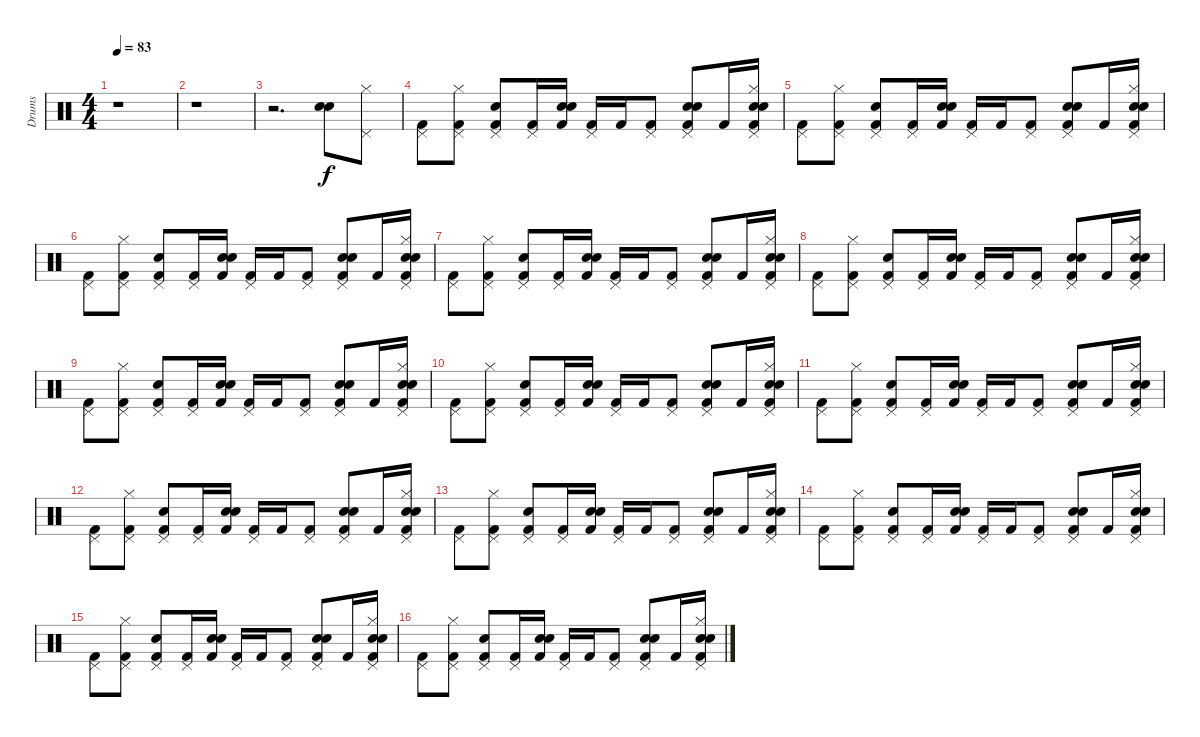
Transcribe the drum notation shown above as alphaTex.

\track ("Drums" "Drums") {instrument percussion}
\staff {score}
\articulation defaults
\ts (4 4)
\tempo 83
\clef neutral
\ks c
r.1{dy f} |
r.1 |
r.2{d} ("Electric Snare (hit)" "Snare (hit) 2").8 ("Hi-Hat (closed)" "Pedal Hi-Hat (hit)").8 |
("Kick (hit) 2" "Pedal Hi-Hat (hit)").8 ("Kick (hit) 2" "Hi-Hat (closed)" "Pedal Hi-Hat (hit)").8 ("Kick (hit) 2" "Electric Snare (hit)" "Pedal Hi-Hat (hit)").8 ("Kick (hit) 2" "Pedal Hi-Hat (hit)").16 ("Kick (hit) 2" "Electric Snare (hit)" "Snare (hit) 2").16 ("Kick (hit) 2" "Pedal Hi-Hat (hit)").16 "Kick (hit) 2".16 ("Kick (hit) 2" "Pedal Hi-Hat (hit)").8 ("Kick (hit) 2" "Electric Snare (hit)" "Snare (hit) 2" "Pedal Hi-Hat (hit)").8 "Kick (hit) 2".16 ("Kick (hit) 2" "Hi-Hat (closed)" "Electric Snare (hit)" "Snare (hit) 2" "Pedal Hi-Hat (hit)").16 |
("Kick (hit) 2" "Pedal Hi-Hat (hit)").8 ("Kick (hit) 2" "Hi-Hat (closed)" "Pedal Hi-Hat (hit)").8 ("Kick (hit) 2" "Electric Snare (hit)" "Pedal Hi-Hat (hit)").8 ("Kick (hit) 2" "Pedal Hi-Hat (hit)").16 ("Kick (hit) 2" "Electric Snare (hit)" "Snare (hit) 2").16 ("Kick (hit) 2" "Pedal Hi-Hat (hit)").16 "Kick (hit) 2".16 ("Kick (hit) 2" "Pedal Hi-Hat (hit)").8 ("Kick (hit) 2" "Electric Snare (hit)" "Snare (hit) 2" "Pedal Hi-Hat (hit)").8 "Kick (hit) 2".16 ("Kick (hit) 2" "Hi-Hat (closed)" "Electric Snare (hit)" "Snare (hit) 2" "Pedal Hi-Hat (hit)").16 |
("Kick (hit) 2" "Pedal Hi-Hat (hit)").8 ("Kick (hit) 2" "Hi-Hat (closed)" "Pedal Hi-Hat (hit)").8 ("Kick (hit) 2" "Electric Snare (hit)" "Pedal Hi-Hat (hit)").8 ("Kick (hit) 2" "Pedal Hi-Hat (hit)").16 ("Kick (hit) 2" "Electric Snare (hit)" "Snare (hit) 2").16 ("Kick (hit) 2" "Pedal Hi-Hat (hit)").16 "Kick (hit) 2".16 ("Kick (hit) 2" "Pedal Hi-Hat (hit)").8 ("Kick (hit) 2" "Electric Snare (hit)" "Snare (hit) 2" "Pedal Hi-Hat (hit)").8 "Kick (hit) 2".16 ("Kick (hit) 2" "Hi-Hat (closed)" "Electric Snare (hit)" "Snare (hit) 2" "Pedal Hi-Hat (hit)").16 |
("Kick (hit) 2" "Pedal Hi-Hat (hit)").8 ("Kick (hit) 2" "Hi-Hat (closed)" "Pedal Hi-Hat (hit)").8 ("Kick (hit) 2" "Electric Snare (hit)" "Pedal Hi-Hat (hit)").8 ("Kick (hit) 2" "Pedal Hi-Hat (hit)").16 ("Kick (hit) 2" "Electric Snare (hit)" "Snare (hit) 2").16 ("Kick (hit) 2" "Pedal Hi-Hat (hit)").16 "Kick (hit) 2".16 ("Kick (hit) 2" "Pedal Hi-Hat (hit)").8 ("Kick (hit) 2" "Electric Snare (hit)" "Snare (hit) 2" "Pedal Hi-Hat (hit)").8 "Kick (hit) 2".16 ("Kick (hit) 2" "Hi-Hat (closed)" "Electric Snare (hit)" "Snare (hit) 2" "Pedal Hi-Hat (hit)").16 |
("Kick (hit) 2" "Pedal Hi-Hat (hit)").8 ("Kick (hit) 2" "Hi-Hat (closed)" "Pedal Hi-Hat (hit)").8 ("Kick (hit) 2" "Electric Snare (hit)" "Pedal Hi-Hat (hit)").8 ("Kick (hit) 2" "Pedal Hi-Hat (hit)").16 ("Kick (hit) 2" "Electric Snare (hit)" "Snare (hit) 2").16 ("Kick (hit) 2" "Pedal Hi-Hat (hit)").16 "Kick (hit) 2".16 ("Kick (hit) 2" "Pedal Hi-Hat (hit)").8 ("Kick (hit) 2" "Electric Snare (hit)" "Snare (hit) 2" "Pedal Hi-Hat (hit)").8 "Kick (hit) 2".16 ("Kick (hit) 2" "Hi-Hat (closed)" "Electric Snare (hit)" "Snare (hit) 2" "Pedal Hi-Hat (hit)").16 |
("Kick (hit) 2" "Pedal Hi-Hat (hit)").8 ("Kick (hit) 2" "Hi-Hat (closed)" "Pedal Hi-Hat (hit)").8 ("Kick (hit) 2" "Electric Snare (hit)" "Pedal Hi-Hat (hit)").8 ("Kick (hit) 2" "Pedal Hi-Hat (hit)").16 ("Kick (hit) 2" "Electric Snare (hit)" "Snare (hit) 2").16 ("Kick (hit) 2" "Pedal Hi-Hat (hit)").16 "Kick (hit) 2".16 ("Kick (hit) 2" "Pedal Hi-Hat (hit)").8 ("Kick (hit) 2" "Electric Snare (hit)" "Snare (hit) 2" "Pedal Hi-Hat (hit)").8 "Kick (hit) 2".16 ("Kick (hit) 2" "Hi-Hat (closed)" "Electric Snare (hit)" "Snare (hit) 2" "Pedal Hi-Hat (hit)").16 |
("Kick (hit) 2" "Pedal Hi-Hat (hit)").8 ("Kick (hit) 2" "Hi-Hat (closed)" "Pedal Hi-Hat (hit)").8 ("Kick (hit) 2" "Electric Snare (hit)" "Pedal Hi-Hat (hit)").8 ("Kick (hit) 2" "Pedal Hi-Hat (hit)").16 ("Kick (hit) 2" "Electric Snare (hit)" "Snare (hit) 2").16 ("Kick (hit) 2" "Pedal Hi-Hat (hit)").16 "Kick (hit) 2".16 ("Kick (hit) 2" "Pedal Hi-Hat (hit)").8 ("Kick (hit) 2" "Electric Snare (hit)" "Snare (hit) 2" "Pedal Hi-Hat (hit)").8 "Kick (hit) 2".16 ("Kick (hit) 2" "Hi-Hat (closed)" "Electric Snare (hit)" "Snare (hit) 2" "Pedal Hi-Hat (hit)").16 |
("Kick (hit) 2" "Pedal Hi-Hat (hit)").8 ("Kick (hit) 2" "Hi-Hat (closed)" "Pedal Hi-Hat (hit)").8 ("Kick (hit) 2" "Electric Snare (hit)" "Pedal Hi-Hat (hit)").8 ("Kick (hit) 2" "Pedal Hi-Hat (hit)").16 ("Kick (hit) 2" "Electric Snare (hit)" "Snare (hit) 2").16 ("Kick (hit) 2" "Pedal Hi-Hat (hit)").16 "Kick (hit) 2".16 ("Kick (hit) 2" "Pedal Hi-Hat (hit)").8 ("Kick (hit) 2" "Electric Snare (hit)" "Snare (hit) 2" "Pedal Hi-Hat (hit)").8 "Kick (hit) 2".16 ("Kick (hit) 2" "Hi-Hat (closed)" "Electric Snare (hit)" "Snare (hit) 2" "Pedal Hi-Hat (hit)").16 |
("Kick (hit) 2" "Pedal Hi-Hat (hit)").8 ("Kick (hit) 2" "Hi-Hat (closed)" "Pedal Hi-Hat (hit)").8 ("Kick (hit) 2" "Electric Snare (hit)" "Pedal Hi-Hat (hit)").8 ("Kick (hit) 2" "Pedal Hi-Hat (hit)").16 ("Kick (hit) 2" "Electric Snare (hit)" "Snare (hit) 2").16 ("Kick (hit) 2" "Pedal Hi-Hat (hit)").16 "Kick (hit) 2".16 ("Kick (hit) 2" "Pedal Hi-Hat (hit)").8 ("Kick (hit) 2" "Electric Snare (hit)" "Snare (hit) 2" "Pedal Hi-Hat (hit)").8 "Kick (hit) 2".16 ("Kick (hit) 2" "Hi-Hat (closed)" "Electric Snare (hit)" "Snare (hit) 2" "Pedal Hi-Hat (hit)").16 |
("Kick (hit) 2" "Pedal Hi-Hat (hit)").8 ("Kick (hit) 2" "Hi-Hat (closed)" "Pedal Hi-Hat (hit)").8 ("Kick (hit) 2" "Electric Snare (hit)" "Pedal Hi-Hat (hit)").8 ("Kick (hit) 2" "Pedal Hi-Hat (hit)").16 ("Kick (hit) 2" "Electric Snare (hit)" "Snare (hit) 2").16 ("Kick (hit) 2" "Pedal Hi-Hat (hit)").16 "Kick (hit) 2".16 ("Kick (hit) 2" "Pedal Hi-Hat (hit)").8 ("Kick (hit) 2" "Electric Snare (hit)" "Snare (hit) 2" "Pedal Hi-Hat (hit)").8 "Kick (hit) 2".16 ("Kick (hit) 2" "Hi-Hat (closed)" "Electric Snare (hit)" "Snare (hit) 2" "Pedal Hi-Hat (hit)").16 |
("Kick (hit) 2" "Pedal Hi-Hat (hit)").8 ("Kick (hit) 2" "Hi-Hat (closed)" "Pedal Hi-Hat (hit)").8 ("Kick (hit) 2" "Electric Snare (hit)" "Pedal Hi-Hat (hit)").8 ("Kick (hit) 2" "Pedal Hi-Hat (hit)").16 ("Kick (hit) 2" "Electric Snare (hit)" "Snare (hit) 2").16 ("Kick (hit) 2" "Pedal Hi-Hat (hit)").16 "Kick (hit) 2".16 ("Kick (hit) 2" "Pedal Hi-Hat (hit)").8 ("Kick (hit) 2" "Electric Snare (hit)" "Snare (hit) 2" "Pedal Hi-Hat (hit)").8 "Kick (hit) 2".16 ("Kick (hit) 2" "Hi-Hat (closed)" "Electric Snare (hit)" "Snare (hit) 2" "Pedal Hi-Hat (hit)").16 |
("Kick (hit) 2" "Pedal Hi-Hat (hit)").8 ("Kick (hit) 2" "Hi-Hat (closed)" "Pedal Hi-Hat (hit)").8 ("Kick (hit) 2" "Electric Snare (hit)" "Pedal Hi-Hat (hit)").8 ("Kick (hit) 2" "Pedal Hi-Hat (hit)").16 ("Kick (hit) 2" "Electric Snare (hit)" "Snare (hit) 2").16 ("Kick (hit) 2" "Pedal Hi-Hat (hit)").16 "Kick (hit) 2".16 ("Kick (hit) 2" "Pedal Hi-Hat (hit)").8 ("Kick (hit) 2" "Electric Snare (hit)" "Snare (hit) 2" "Pedal Hi-Hat (hit)").8 "Kick (hit) 2".16 ("Kick (hit) 2" "Hi-Hat (closed)" "Electric Snare (hit)" "Snare (hit) 2" "Pedal Hi-Hat (hit)").16 |
("Kick (hit) 2" "Pedal Hi-Hat (hit)").8 ("Kick (hit) 2" "Hi-Hat (closed)" "Pedal Hi-Hat (hit)").8 ("Kick (hit) 2" "Electric Snare (hit)" "Pedal Hi-Hat (hit)").8 ("Kick (hit) 2" "Pedal Hi-Hat (hit)").16 ("Kick (hit) 2" "Electric Snare (hit)" "Snare (hit) 2").16 ("Kick (hit) 2" "Pedal Hi-Hat (hit)").16 "Kick (hit) 2".16 ("Kick (hit) 2" "Pedal Hi-Hat (hit)").8 ("Kick (hit) 2" "Electric Snare (hit)" "Snare (hit) 2" "Pedal Hi-Hat (hit)").8 "Kick (hit) 2".16 ("Kick (hit) 2" "Hi-Hat (closed)" "Electric Snare (hit)" "Snare (hit) 2" "Pedal Hi-Hat (hit)").16
